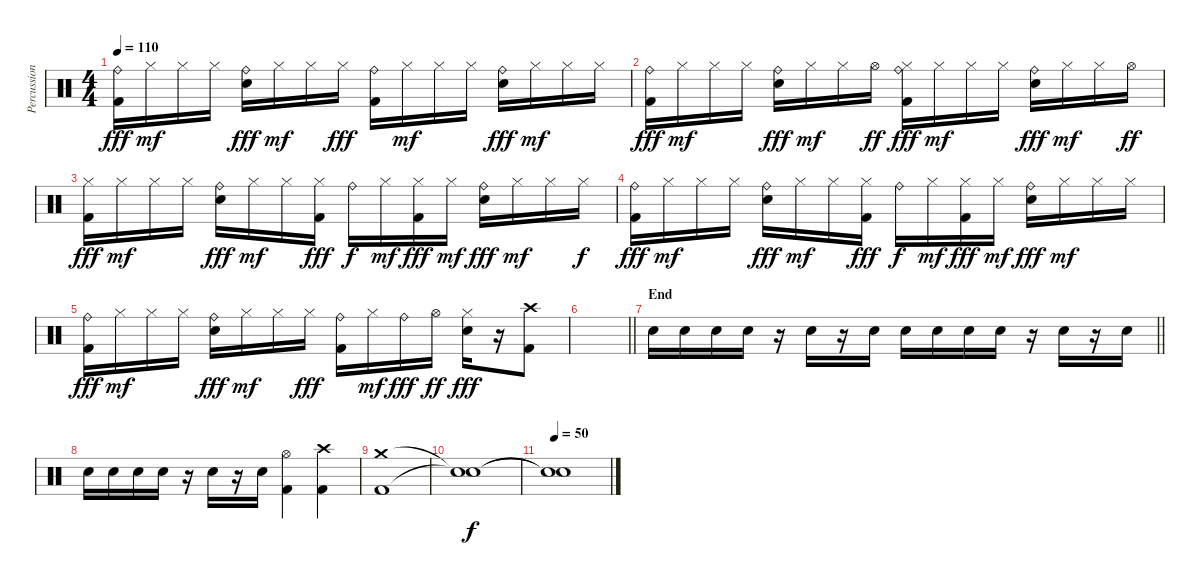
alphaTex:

\track ("Percussion" "Percussion") {instrument percussion}
\staff {score}
\articulation defaults
\ts (4 4)
\tempo 110
\clef neutral
\ks c
("Ride (bell)" "Kick (hit) 2").16{dy fff} "Hi-Hat (closed)".16{dy mf} "Hi-Hat (closed)".16 "Hi-Hat (closed)".16 ("Ride (bell)" "Electric Snare (hit)").16{dy fff} "Hi-Hat (closed)".16{dy mf} "Hi-Hat (closed)".16 "Hi-Hat (closed)".16{dy fff} ("Ride (bell)" "Kick (hit) 2").16 "Hi-Hat (closed)".16{dy mf} "Hi-Hat (closed)".16 "Hi-Hat (closed)".16 ("Ride (bell)" "Electric Snare (hit)").16{dy fff} "Hi-Hat (closed)".16{dy mf} "Hi-Hat (closed)".16 "Hi-Hat (closed)".16 |
("Ride (bell)" "Kick (hit) 2").16{dy fff} "Hi-Hat (closed)".16{dy mf} "Hi-Hat (closed)".16 "Hi-Hat (closed)".16 ("Ride (bell)" "Electric Snare (hit)").16{dy fff} "Hi-Hat (closed)".16{dy mf} "Hi-Hat (closed)".16 "Hi-Hat (open)".16{dy ff} ("Hi-Hat (closed)" "Ride (bell)" "Kick (hit) 2").16{dy fff} "Hi-Hat (closed)".16{dy mf} "Hi-Hat (closed)".16 "Hi-Hat (closed)".16 ("Ride (bell)" "Electric Snare (hit)").16{dy fff} "Hi-Hat (closed)".16{dy mf} "Hi-Hat (closed)".16 "Hi-Hat (open)".16{dy ff} |
("Hi-Hat (closed)" "Kick (hit) 2").16{dy fff} "Hi-Hat (closed)".16{dy mf} "Hi-Hat (closed)".16 "Hi-Hat (closed)".16 ("Ride (bell)" "Electric Snare (hit)").16{dy fff} "Hi-Hat (closed)".16{dy mf} "Hi-Hat (closed)".16 ("Hi-Hat (closed)" "Kick (hit) 2").16{dy fff} "Ride (bell)".16{dy f} "Hi-Hat (closed)".16{dy mf} ("Hi-Hat (closed)" "Kick (hit) 2").16{dy fff} "Hi-Hat (closed)".16{dy mf} ("Ride (bell)" "Electric Snare (hit)").16{dy fff} "Hi-Hat (closed)".16{dy mf} "Hi-Hat (closed)".16 "Hi-Hat (closed)".16{dy f} |
("Ride (bell)" "Kick (hit) 2").16{dy fff} "Hi-Hat (closed)".16{dy mf} "Hi-Hat (closed)".16 "Hi-Hat (closed)".16 ("Ride (bell)" "Electric Snare (hit)").16{dy fff} "Hi-Hat (closed)".16{dy mf} "Hi-Hat (closed)".16 ("Hi-Hat (closed)" "Kick (hit) 2").16{dy fff} "Ride (bell)".16{dy f} "Hi-Hat (closed)".16{dy mf} ("Hi-Hat (closed)" "Kick (hit) 2").16{dy fff} "Hi-Hat (closed)".16{dy mf} ("Ride (bell)" "Electric Snare (hit)").16{dy fff} "Hi-Hat (closed)".16{dy mf} "Hi-Hat (closed)".16 "Hi-Hat (closed)".16 |
("Ride (bell)" "Kick (hit) 2").16{dy fff} "Hi-Hat (closed)".16{dy mf} "Hi-Hat (closed)".16 "Hi-Hat (closed)".16 ("Ride (bell)" "Electric Snare (hit)").16{dy fff} "Hi-Hat (closed)".16{dy mf} "Hi-Hat (closed)".16 "Hi-Hat (closed)".16{dy fff} ("Ride (bell)" "Kick (hit) 2").16 "Hi-Hat (closed)".16{dy mf} "Ride (bell)".16{dy fff} "Hi-Hat (open)".16{dy ff} ("Hi-Hat (closed)" "Electric Snare (hit)").16{dy fff} r.16 ("Crash high (hit)" "Kick (hit) 2").8 |
\barLineRight lightlight
|
\section ("" "End")
\barLineRight lightlight "Electric Snare (hit)".16 "Electric Snare (hit)".16 "Electric Snare (hit)".16 "Electric Snare (hit)".16
r.16 "Electric Snare (hit)".16 r.16 "Electric Snare (hit)".16 "Electric Snare (hit)".16 "Electric Snare (hit)".16 "Electric Snare (hit)".16 "Electric Snare (hit)".16 r.16 "Electric Snare (hit)".16 r.16 "Electric Snare (hit)".16 |
"Electric Snare (hit)".16 "Electric Snare (hit)".16 "Electric Snare (hit)".16 "Electric Snare (hit)".16 r.16 "Electric Snare (hit)".16 r.16 "Electric Snare (hit)".16 ("Hi-Hat (open)" "Kick (hit) 2").4 ("Crash high (hit)" "Kick (hit) 2").4 |
("Crash medium (hit)" "Kick (hit) 2").1 |
("Snare (hit)"{t} "Snare (hit)"{t}).1{dy f} |
\tempo 50
("Snare (hit)"{t} "Snare (hit)"{t}).1
